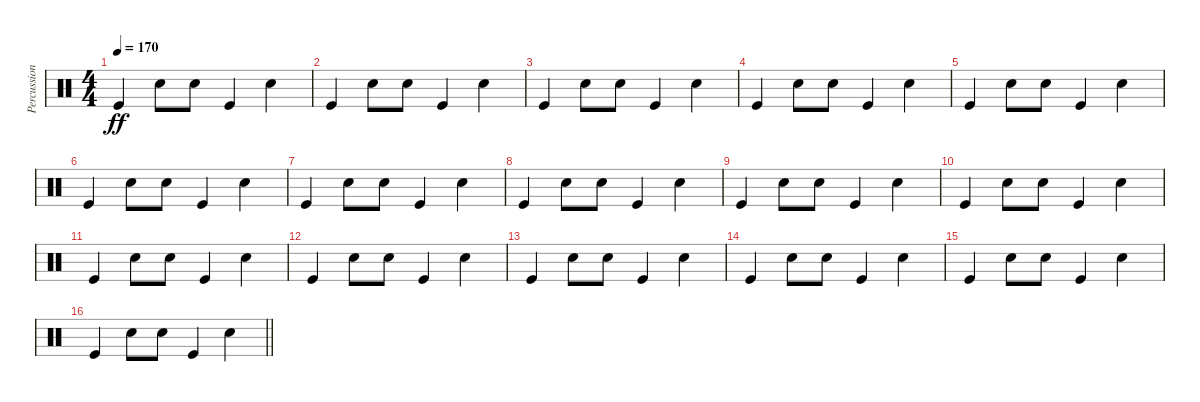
\track ("Percussions" "Percussion") {instrument percussion}
\staff {score}
\articulation defaults
\ts (4 4)
\tempo 170
\clef neutral
\ks c "Kick (hit)".4{dy ff} "Snare (hit) 2".8 "Snare (hit) 2".8 "Kick (hit)".4 "Snare (hit) 2".4
|
"Kick (hit)".4 "Snare (hit) 2".8 "Snare (hit) 2".8 "Kick (hit)".4 "Snare (hit) 2".4 |
"Kick (hit)".4 "Snare (hit) 2".8 "Snare (hit) 2".8 "Kick (hit)".4 "Snare (hit) 2".4 |
"Kick (hit)".4 "Snare (hit) 2".8 "Snare (hit) 2".8 "Kick (hit)".4 "Snare (hit) 2".4 |
"Kick (hit)".4 "Snare (hit) 2".8 "Snare (hit) 2".8 "Kick (hit)".4 "Snare (hit) 2".4 |
"Kick (hit)".4 "Snare (hit) 2".8 "Snare (hit) 2".8 "Kick (hit)".4 "Snare (hit) 2".4 |
"Kick (hit)".4 "Snare (hit) 2".8 "Snare (hit) 2".8 "Kick (hit)".4 "Snare (hit) 2".4 |
"Kick (hit)".4 "Snare (hit) 2".8 "Snare (hit) 2".8 "Kick (hit)".4 "Snare (hit) 2".4 |
"Kick (hit)".4 "Snare (hit) 2".8 "Snare (hit) 2".8 "Kick (hit)".4 "Snare (hit) 2".4 |
"Kick (hit)".4 "Snare (hit) 2".8 "Snare (hit) 2".8 "Kick (hit)".4 "Snare (hit) 2".4 |
"Kick (hit)".4 "Snare (hit) 2".8 "Snare (hit) 2".8 "Kick (hit)".4 "Snare (hit) 2".4 |
"Kick (hit)".4 "Snare (hit) 2".8 "Snare (hit) 2".8 "Kick (hit)".4 "Snare (hit) 2".4 |
"Kick (hit)".4 "Snare (hit) 2".8 "Snare (hit) 2".8 "Kick (hit)".4 "Snare (hit) 2".4 |
"Kick (hit)".4 "Snare (hit) 2".8 "Snare (hit) 2".8 "Kick (hit)".4 "Snare (hit) 2".4 |
"Kick (hit)".4 "Snare (hit) 2".8 "Snare (hit) 2".8 "Kick (hit)".4 "Snare (hit) 2".4 |
\barLineRight lightlight "Kick (hit)".4 "Snare (hit) 2".8 "Snare (hit) 2".8 "Kick (hit)".4 "Snare (hit) 2".4
